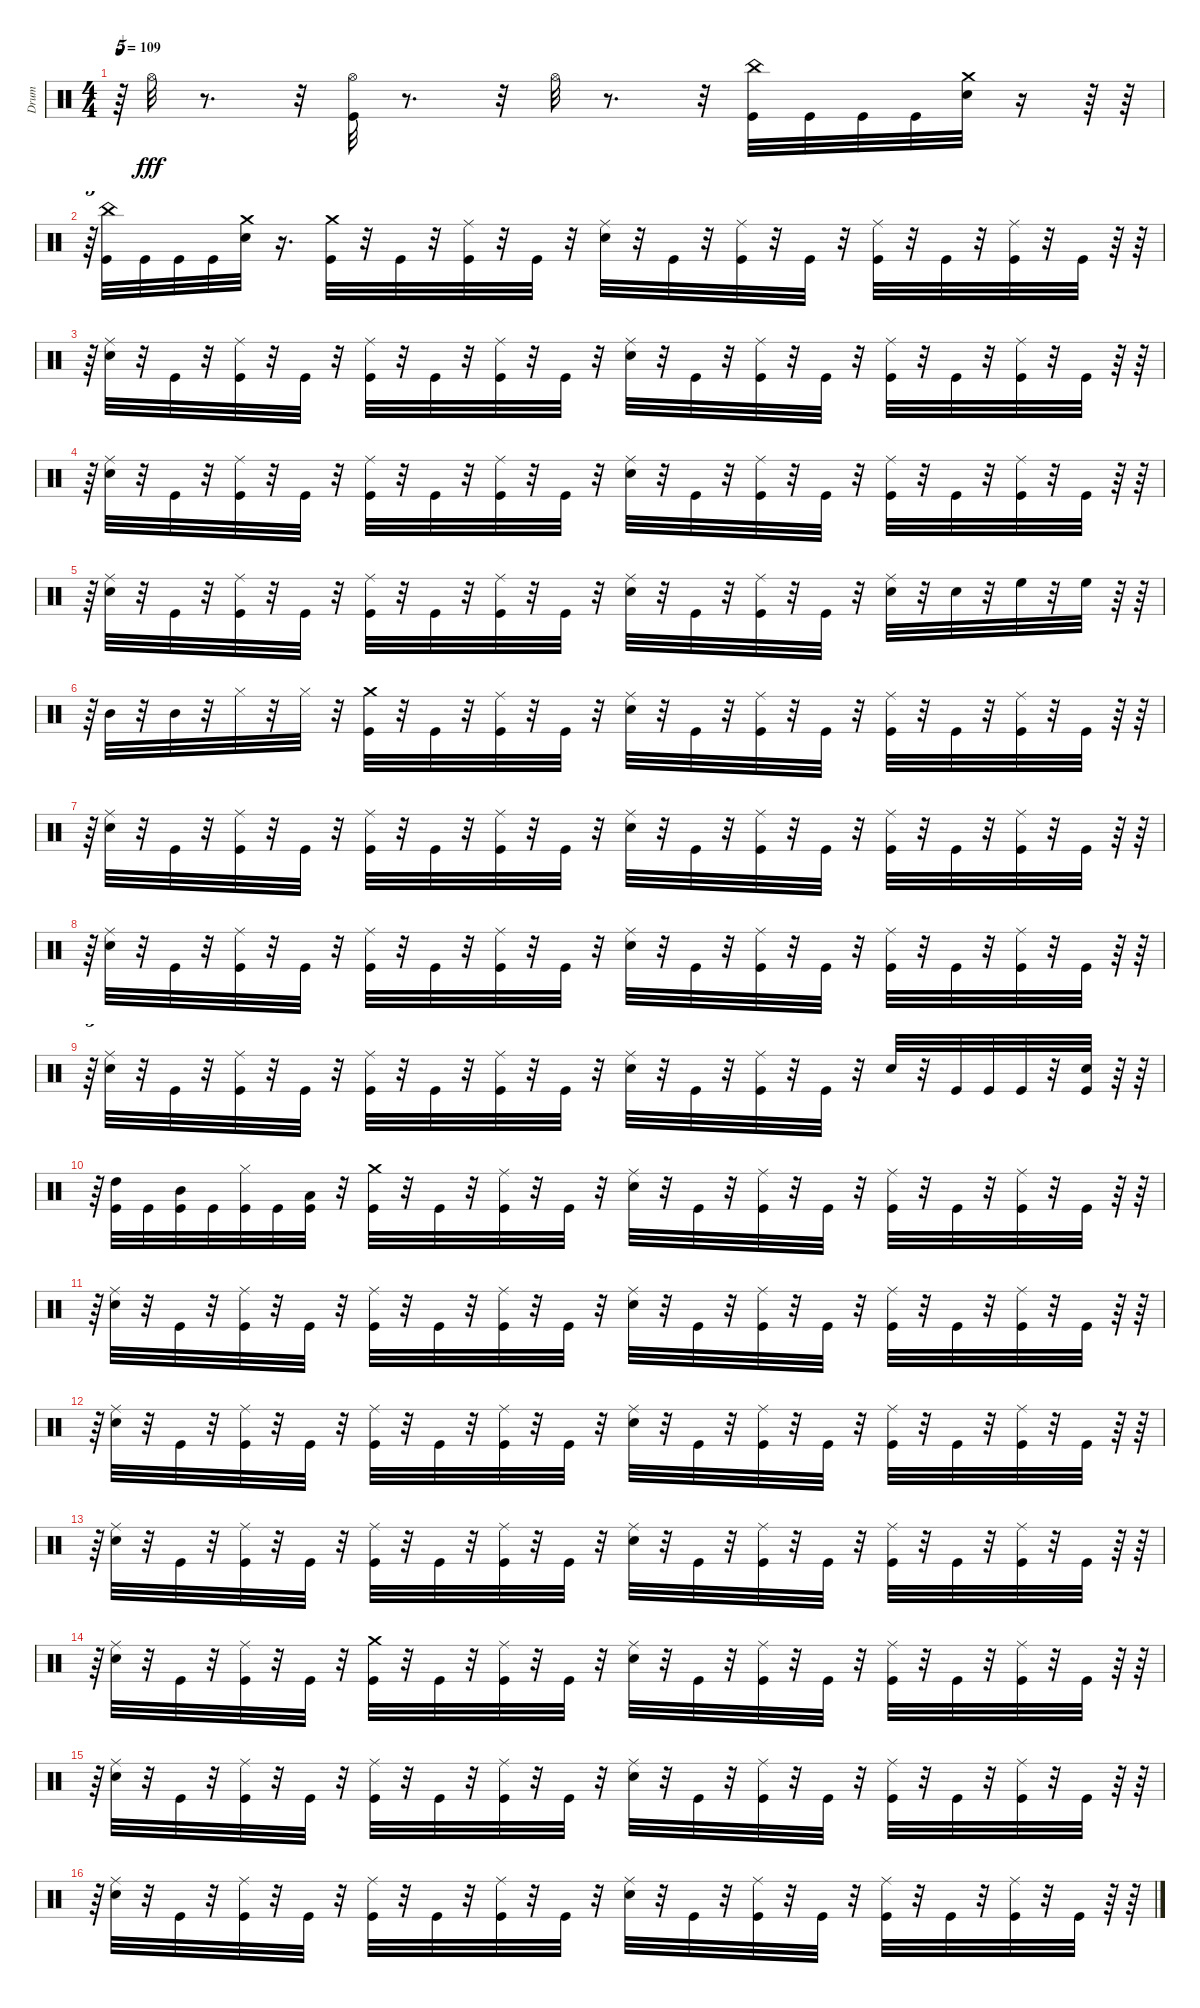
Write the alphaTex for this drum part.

\track ("Drum" "Drum") {instrument percussion}
\staff {score}
\articulation defaults
\ts (4 4)
\tempo 109
\clef neutral
\ks c
r.64{tu (5 4) dy fff} "Hi-Hat (open)".32 r.8{d} r.32 ("Kick (hit)" "Hi-Hat (open)").32 r.8{d} r.32 "Hi-Hat (open)".32 r.8{d} r.32 ("China (hit)" "Kick (hit)").32 "Kick (hit)".32 "Kick (hit)".32 "Kick (hit)".32 ("Crash medium (hit)" "Snare (hit) 2").32 r.16 r.64 r.64 |
r.64{tu (5 4)} ("China (hit)" "Kick (hit)").32 "Kick (hit)".32 "Kick (hit)".32 "Kick (hit)".32 ("Snare (hit) 2" "Crash medium (hit)").32 r.16{d} ("Crash medium (hit)" "Kick (hit)").32 r.32 "Kick (hit)".32 r.32 ("Ride (middle)" "Kick (hit)").32 r.32 "Kick (hit)".32 r.32 ("Snare (hit) 2" "Ride (middle)").32 r.32 "Kick (hit)".32 r.32 ("Ride (middle)" "Kick (hit)").32 r.32 "Kick (hit)".32 r.32 ("Kick (hit)" "Ride (middle)").32 r.32 "Kick (hit)".32 r.32 ("Ride (middle)" "Kick (hit)").32 r.32 "Kick (hit)".32 r.64 r.64 |
r.64{tu (5 4)} ("Ride (middle)" "Snare (hit) 2").32 r.32 "Kick (hit)".32 r.32 ("Kick (hit)" "Ride (middle)").32 r.32 "Kick (hit)".32 r.32 ("Kick (hit)" "Ride (middle)").32 r.32 "Kick (hit)".32 r.32 ("Ride (middle)" "Kick (hit)").32 r.32 "Kick (hit)".32 r.32 ("Ride (middle)" "Snare (hit) 2").32 r.32 "Kick (hit)".32 r.32 ("Kick (hit)" "Ride (middle)").32 r.32 "Kick (hit)".32 r.32 ("Ride (middle)" "Kick (hit)").32 r.32 "Kick (hit)".32 r.32 ("Kick (hit)" "Ride (middle)").32 r.32 "Kick (hit)".32 r.64 r.64 |
r.64{tu (5 4)} ("Snare (hit) 2" "Ride (middle)").32 r.32 "Kick (hit)".32 r.32 ("Ride (middle)" "Kick (hit)").32 r.32 "Kick (hit)".32 r.32 ("Kick (hit)" "Ride (middle)").32 r.32 "Kick (hit)".32 r.32 ("Ride (middle)" "Kick (hit)").32 r.32 "Kick (hit)".32 r.32 ("Ride (middle)" "Snare (hit) 2").32 r.32 "Kick (hit)".32 r.32 ("Ride (middle)" "Kick (hit)").32 r.32 "Kick (hit)".32 r.32 ("Ride (middle)" "Kick (hit)").32 r.32 "Kick (hit)".32 r.32 ("Ride (middle)" "Kick (hit)").32 r.32 "Kick (hit)".32 r.64 r.64 |
r.64{tu (5 4)} ("Snare (hit) 2" "Ride (middle)").32 r.32 "Kick (hit)".32 r.32 ("Ride (middle)" "Kick (hit)").32 r.32 "Kick (hit)".32 r.32 ("Kick (hit)" "Ride (middle)").32 r.32 "Kick (hit)".32 r.32 ("Kick (hit)" "Ride (middle)").32 r.32 "Kick (hit)".32 r.32 ("Snare (hit) 2" "Ride (middle)").32 r.32 "Kick (hit)".32 r.32 ("Ride (middle)" "Kick (hit)").32 r.32 "Kick (hit)".32 r.32 ("Snare (hit) 2" "Ride (middle)").32 r.32 "Snare (hit) 2".32 r.32 "High Floor Tom (hit)".32 r.32 "High Floor Tom (hit)".32 r.64 r.64 |
r.64{tu (5 4)} "Mid Tom (hit)".32 r.32 "Mid Tom (hit)".32 r.32 "Hi-Hat (closed)".32 r.32 "Hi-Hat (closed)".32 r.32 ("Kick (hit)" "Crash medium (hit)").32 r.32 "Kick (hit)".32 r.32 ("Kick (hit)" "Ride (middle)").32 r.32 "Kick (hit)".32 r.32 ("Ride (middle)" "Snare (hit) 2").32 r.32 "Kick (hit)".32 r.32 ("Ride (middle)" "Kick (hit)").32 r.32 "Kick (hit)".32 r.32 ("Ride (middle)" "Kick (hit)").32 r.32 "Kick (hit)".32 r.32 ("Kick (hit)" "Ride (middle)").32 r.32 "Kick (hit)".32 r.64 r.64 |
r.64{tu (5 4)} ("Snare (hit) 2" "Ride (middle)").32 r.32 "Kick (hit)".32 r.32 ("Kick (hit)" "Ride (middle)").32 r.32 "Kick (hit)".32 r.32 ("Ride (middle)" "Kick (hit)").32 r.32 "Kick (hit)".32 r.32 ("Ride (middle)" "Kick (hit)").32 r.32 "Kick (hit)".32 r.32 ("Snare (hit) 2" "Ride (middle)").32 r.32 "Kick (hit)".32 r.32 ("Ride (middle)" "Kick (hit)").32 r.32 "Kick (hit)".32 r.32 ("Kick (hit)" "Ride (middle)").32 r.32 "Kick (hit)".32 r.32 ("Kick (hit)" "Ride (middle)").32 r.32 "Kick (hit)".32 r.64 r.64 |
r.64{tu (5 4)} ("Snare (hit) 2" "Ride (middle)").32 r.32 "Kick (hit)".32 r.32 ("Ride (middle)" "Kick (hit)").32 r.32 "Kick (hit)".32 r.32 ("Ride (middle)" "Kick (hit)").32 r.32 "Kick (hit)".32 r.32 ("Kick (hit)" "Ride (middle)").32 r.32 "Kick (hit)".32 r.32 ("Snare (hit) 2" "Ride (middle)").32 r.32 "Kick (hit)".32 r.32 ("Ride (middle)" "Kick (hit)").32 r.32 "Kick (hit)".32 r.32 ("Ride (middle)" "Kick (hit)").32 r.32 "Kick (hit)".32 r.32 ("Ride (middle)" "Kick (hit)").32 r.32 "Kick (hit)".32 r.64 r.64 |
r.64{tu (5 4)} ("Ride (middle)" "Snare (hit) 2").32 r.32 "Kick (hit)".32 r.32 ("Ride (middle)" "Kick (hit)").32 r.32 "Kick (hit)".32 r.32 ("Kick (hit)" "Ride (middle)").32 r.32 "Kick (hit)".32 r.32 ("Kick (hit)" "Ride (middle)").32 r.32 "Kick (hit)".32 r.32 ("Ride (middle)" "Snare (hit) 2").32 r.32 "Kick (hit)".32 r.32 ("Ride (middle)" "Kick (hit)").32 r.32 "Kick (hit)".32 r.32 "Snare (hit) 2".32 r.32 "Kick (hit)".32 "Kick (hit)".32 "Kick (hit)".32 r.32 ("Kick (hit)" "Snare (hit) 2").32 r.64 r.64 |
r.64{tu (5 4)} ("High Tom (hit)" "Kick (hit)").32 "Kick (hit)".32 ("Kick (hit)" "Mid Tom (hit)").32 "Kick (hit)".32 ("Kick (hit)" "Hi-Hat (closed)").32 "Kick (hit)".32 ("Kick (hit)" "Low Floor Tom (hit)").32 r.32 ("Crash medium (hit)" "Kick (hit)").32 r.32 "Kick (hit)".32 r.32 ("Kick (hit)" "Ride (middle)").32 r.32 "Kick (hit)".32 r.32 ("Ride (middle)" "Snare (hit) 2").32 r.32 "Kick (hit)".32 r.32 ("Kick (hit)" "Ride (middle)").32 r.32 "Kick (hit)".32 r.32 ("Ride (middle)" "Kick (hit)").32 r.32 "Kick (hit)".32 r.32 ("Ride (middle)" "Kick (hit)").32 r.32 "Kick (hit)".32 r.64 r.64 |
r.64{tu (5 4)} ("Snare (hit) 2" "Ride (middle)").32 r.32 "Kick (hit)".32 r.32 ("Kick (hit)" "Ride (middle)").32 r.32 "Kick (hit)".32 r.32 ("Ride (middle)" "Kick (hit)").32 r.32 "Kick (hit)".32 r.32 ("Kick (hit)" "Ride (middle)").32 r.32 "Kick (hit)".32 r.32 ("Snare (hit) 2" "Ride (middle)").32 r.32 "Kick (hit)".32 r.32 ("Ride (middle)" "Kick (hit)").32 r.32 "Kick (hit)".32 r.32 ("Ride (middle)" "Kick (hit)").32 r.32 "Kick (hit)".32 r.32 ("Ride (middle)" "Kick (hit)").32 r.32 "Kick (hit)".32 r.64 r.64 |
r.64{tu (5 4)} ("Snare (hit) 2" "Ride (middle)").32 r.32 "Kick (hit)".32 r.32 ("Ride (middle)" "Kick (hit)").32 r.32 "Kick (hit)".32 r.32 ("Ride (middle)" "Kick (hit)").32 r.32 "Kick (hit)".32 r.32 ("Kick (hit)" "Ride (middle)").32 r.32 "Kick (hit)".32 r.32 ("Snare (hit) 2" "Ride (middle)").32 r.32 "Kick (hit)".32 r.32 ("Kick (hit)" "Ride (middle)").32 r.32 "Kick (hit)".32 r.32 ("Ride (middle)" "Kick (hit)").32 r.32 "Kick (hit)".32 r.32 ("Ride (middle)" "Kick (hit)").32 r.32 "Kick (hit)".32 r.64 r.64 |
r.64{tu (5 4)} ("Snare (hit) 2" "Ride (middle)").32 r.32 "Kick (hit)".32 r.32 ("Kick (hit)" "Ride (middle)").32 r.32 "Kick (hit)".32 r.32 ("Ride (middle)" "Kick (hit)").32 r.32 "Kick (hit)".32 r.32 ("Ride (middle)" "Kick (hit)").32 r.32 "Kick (hit)".32 r.32 ("Snare (hit) 2" "Ride (middle)").32 r.32 "Kick (hit)".32 r.32 ("Ride (middle)" "Kick (hit)").32 r.32 "Kick (hit)".32 r.32 ("Ride (middle)" "Kick (hit)").32 r.32 "Kick (hit)".32 r.32 ("Ride (middle)" "Kick (hit)").32 r.32 "Kick (hit)".32 r.64 r.64 |
r.64{tu (5 4)} ("Ride (middle)" "Snare (hit) 2").32 r.32 "Kick (hit)".32 r.32 ("Kick (hit)" "Ride (middle)").32 r.32 "Kick (hit)".32 r.32 ("Crash medium (hit)" "Kick (hit)").32 r.32 "Kick (hit)".32 r.32 ("Ride (middle)" "Kick (hit)").32 r.32 "Kick (hit)".32 r.32 ("Snare (hit) 2" "Ride (middle)").32 r.32 "Kick (hit)".32 r.32 ("Kick (hit)" "Ride (middle)").32 r.32 "Kick (hit)".32 r.32 ("Kick (hit)" "Ride (middle)").32 r.32 "Kick (hit)".32 r.32 ("Kick (hit)" "Ride (middle)").32 r.32 "Kick (hit)".32 r.64 r.64 |
r.64{tu (5 4)} ("Ride (middle)" "Snare (hit) 2").32 r.32 "Kick (hit)".32 r.32 ("Ride (middle)" "Kick (hit)").32 r.32 "Kick (hit)".32 r.32 ("Ride (middle)" "Kick (hit)").32 r.32 "Kick (hit)".32 r.32 ("Ride (middle)" "Kick (hit)").32 r.32 "Kick (hit)".32 r.32 ("Ride (middle)" "Snare (hit) 2").32 r.32 "Kick (hit)".32 r.32 ("Kick (hit)" "Ride (middle)").32 r.32 "Kick (hit)".32 r.32 ("Ride (middle)" "Kick (hit)").32 r.32 "Kick (hit)".32 r.32 ("Kick (hit)" "Ride (middle)").32 r.32 "Kick (hit)".32 r.64 r.64 |
r.64{tu (5 4)} ("Snare (hit) 2" "Ride (middle)").32 r.32 "Kick (hit)".32 r.32 ("Ride (middle)" "Kick (hit)").32 r.32 "Kick (hit)".32 r.32 ("Kick (hit)" "Ride (middle)").32 r.32 "Kick (hit)".32 r.32 ("Kick (hit)" "Ride (middle)").32 r.32 "Kick (hit)".32 r.32 ("Snare (hit) 2" "Ride (middle)").32 r.32 "Kick (hit)".32 r.32 ("Kick (hit)" "Ride (middle)").32 r.32 "Kick (hit)".32 r.32 ("Kick (hit)" "Ride (middle)").32 r.32 "Kick (hit)".32 r.32 ("Kick (hit)" "Ride (middle)").32 r.32 "Kick (hit)".32 r.64 r.64
